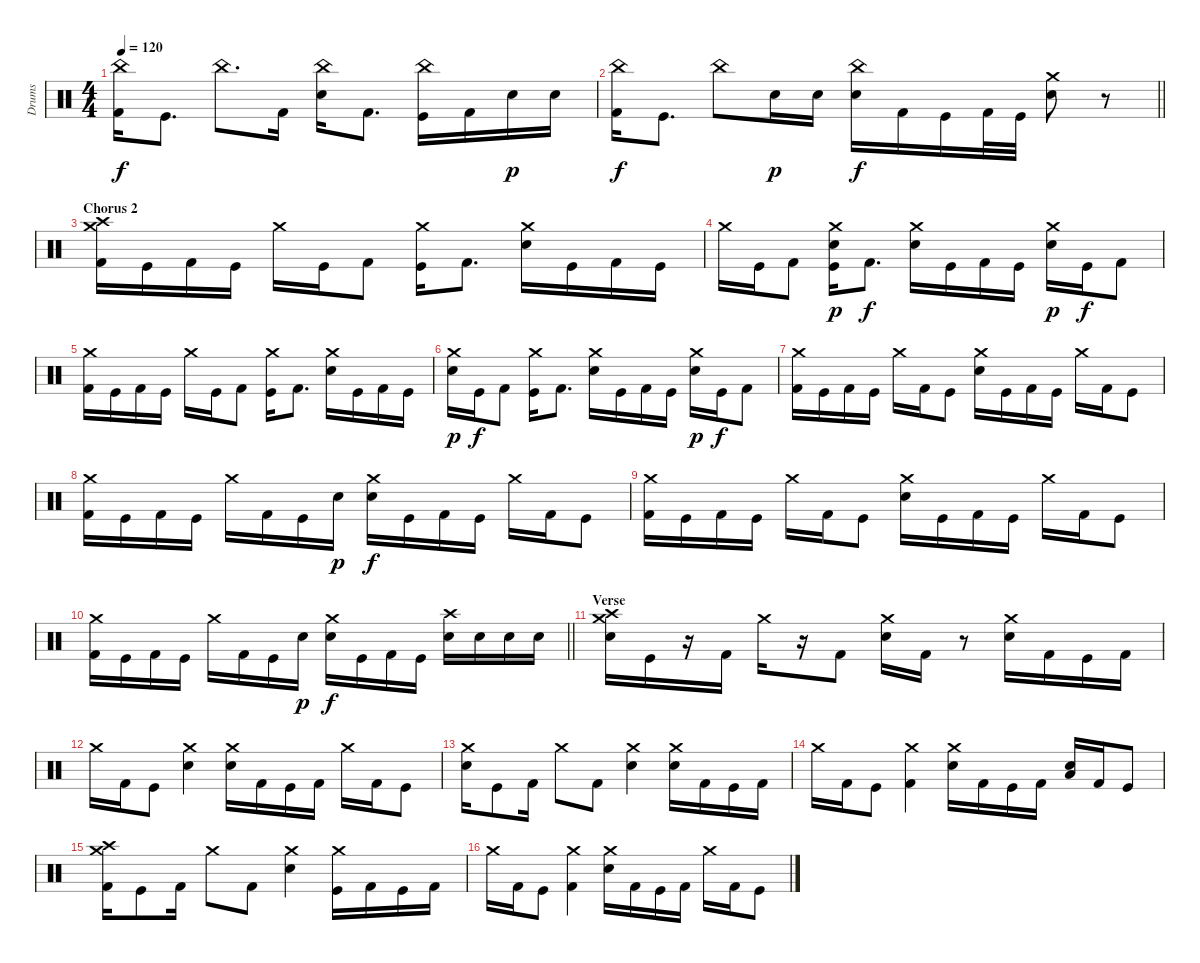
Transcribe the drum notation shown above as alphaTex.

\track ("Drums" "Drums") {instrument percussion}
\staff {score}
\articulation defaults
\ts (4 4)
\tempo 120
\clef neutral
\ks c
("China (hit)" "Kick (hit) 2").16{dy f} "Kick (hit)".8{d} "China (hit)".8{d} "Kick (hit) 2".16 ("China (hit)" "Electric Snare (hit)").16 "Kick (hit) 2".8{d} ("China (hit)" "Kick (hit)").16 "Kick (hit) 2".16 "Electric Snare (hit)".16{dy p} "Electric Snare (hit)".16 |
\barLineRight lightlight
("China (hit)" "Kick (hit) 2").16{dy f} "Kick (hit)".8{d} "China (hit)".8 "Electric Snare (hit)".16{dy p} "Electric Snare (hit)".16 ("China (hit)" "Electric Snare (hit)").16{dy f} "Kick (hit) 2".16 "Kick (hit)".16 "Kick (hit) 2".32 "Kick (hit)".32 ("Crash medium (hit)" "Electric Snare (hit)").8 r.8 |
\section ("" "Chorus 2")
("Crash high (hit)" "Crash medium (hit)" "Kick (hit) 2").16 "Kick (hit)".16 "Kick (hit) 2".16 "Kick (hit)".16 "Crash medium (hit)".16 "Kick (hit)".16 "Kick (hit) 2".8 ("Crash medium (hit)" "Kick (hit)").16 "Kick (hit) 2".8{d} ("Crash medium (hit)" "Electric Snare (hit)").16 "Kick (hit)".16 "Kick (hit) 2".16 "Kick (hit)".16 |
"Crash medium (hit)".16 "Kick (hit)".16 "Kick (hit) 2".8 ("Crash medium (hit)" "Electric Snare (hit)" "Kick (hit)").16{dy p} "Kick (hit) 2".8{d dy f} ("Crash medium (hit)" "Electric Snare (hit)").16 "Kick (hit)".16 "Kick (hit) 2".16 "Kick (hit)".16 ("Crash medium (hit)" "Electric Snare (hit)").16{dy p} "Kick (hit)".16{dy f} "Kick (hit) 2".8 |
("Crash medium (hit)" "Kick (hit) 2").16 "Kick (hit)".16 "Kick (hit) 2".16 "Kick (hit)".16 "Crash medium (hit)".16 "Kick (hit)".16 "Kick (hit) 2".8 ("Crash medium (hit)" "Kick (hit)").16 "Kick (hit) 2".8{d} ("Crash medium (hit)" "Electric Snare (hit)").16 "Kick (hit)".16 "Kick (hit) 2".16 "Kick (hit)".16 |
("Crash medium (hit)" "Electric Snare (hit)").16{dy p} "Kick (hit)".16{dy f} "Kick (hit) 2".8 ("Crash medium (hit)" "Kick (hit)").16 "Kick (hit) 2".8{d} ("Crash medium (hit)" "Electric Snare (hit)").16 "Kick (hit)".16 "Kick (hit) 2".16 "Kick (hit)".16 ("Crash medium (hit)" "Electric Snare (hit)").16{dy p} "Kick (hit)".16{dy f} "Kick (hit) 2".8 |
("Crash medium (hit)" "Kick (hit) 2").16 "Kick (hit)".16 "Kick (hit) 2".16 "Kick (hit)".16 "Crash medium (hit)".16 "Kick (hit) 2".16 "Kick (hit)".8 ("Crash medium (hit)" "Electric Snare (hit)").16 "Kick (hit)".16 "Kick (hit) 2".16 "Kick (hit)".16 "Crash medium (hit)".16 "Kick (hit) 2".16 "Kick (hit)".8 |
("Crash medium (hit)" "Kick (hit) 2").16 "Kick (hit)".16 "Kick (hit) 2".16 "Kick (hit)".16 "Crash medium (hit)".16 "Kick (hit) 2".16 "Kick (hit)".16 "Electric Snare (hit)".16{dy p} ("Crash medium (hit)" "Electric Snare (hit)").16{dy f} "Kick (hit)".16 "Kick (hit) 2".16 "Kick (hit)".16 "Crash medium (hit)".16 "Kick (hit) 2".16 "Kick (hit)".8 |
("Crash medium (hit)" "Kick (hit) 2").16 "Kick (hit)".16 "Kick (hit) 2".16 "Kick (hit)".16 "Crash medium (hit)".16 "Kick (hit) 2".16 "Kick (hit)".8 ("Crash medium (hit)" "Electric Snare (hit)").16 "Kick (hit)".16 "Kick (hit) 2".16 "Kick (hit)".16 "Crash medium (hit)".16 "Kick (hit) 2".16 "Kick (hit)".8 |
\barLineRight lightlight
("Crash medium (hit)" "Kick (hit) 2").16 "Kick (hit)".16 "Kick (hit) 2".16 "Kick (hit)".16 "Crash medium (hit)".16 "Kick (hit) 2".16 "Kick (hit)".16 "Electric Snare (hit)".16{dy p} ("Crash medium (hit)" "Electric Snare (hit)").16{dy f} "Kick (hit)".16 "Kick (hit) 2".16 "Kick (hit)".16 ("Crash high (hit)" "Electric Snare (hit)").16 "Electric Snare (hit)".16 "Electric Snare (hit)".16 "Electric Snare (hit)".16 |
\section ("" "Verse")
("Crash medium (hit)" "Crash high (hit)" "Electric Snare (hit)").16 "Kick (hit)".16 r.16 "Kick (hit) 2".16 "Crash medium (hit)".16 r.16 "Kick (hit) 2".8 ("Crash medium (hit)" "Electric Snare (hit)").16 "Kick (hit) 2".16 r.8 ("Crash medium (hit)" "Electric Snare (hit)").16 "Kick (hit) 2".16 "Kick (hit)".16 "Kick (hit) 2".16 |
"Crash medium (hit)".16 "Kick (hit) 2".16 "Kick (hit)".8 ("Crash medium (hit)" "Electric Snare (hit)").4 ("Crash medium (hit)" "Electric Snare (hit)").16 "Kick (hit) 2".16 "Kick (hit)".16 "Kick (hit) 2".16 "Crash medium (hit)".16 "Kick (hit) 2".16 "Kick (hit)".8 |
("Crash medium (hit)" "Electric Snare (hit)").16 "Kick (hit)".8 "Kick (hit) 2".16 "Crash medium (hit)".8 "Kick (hit) 2".8 ("Crash medium (hit)" "Electric Snare (hit)").4 ("Crash medium (hit)" "Electric Snare (hit)").16 "Kick (hit) 2".16 "Kick (hit)".16 "Kick (hit) 2".16 |
"Crash medium (hit)".16 "Kick (hit) 2".16 "Kick (hit)".8 ("Crash medium (hit)" "Kick (hit) 2").4 ("Crash medium (hit)" "Electric Snare (hit)").16 "Kick (hit) 2".16 "Kick (hit)".16 "Kick (hit) 2".16 ("Low Tom (hit)" "Electric Snare (hit)").16 "Kick (hit) 2".16 "Kick (hit)".8 |
("Crash medium (hit)" "Crash high (hit)" "Kick (hit) 2").16 "Kick (hit)".8 "Kick (hit) 2".16 "Crash medium (hit)".8 "Kick (hit) 2".8 ("Crash medium (hit)" "Electric Snare (hit)").4 ("Crash medium (hit)" "Kick (hit)").16 "Kick (hit) 2".16 "Kick (hit)".16 "Kick (hit) 2".16 |
"Crash medium (hit)".16 "Kick (hit) 2".16 "Kick (hit)".8 ("Crash medium (hit)" "Kick (hit) 2").4 ("Crash medium (hit)" "Electric Snare (hit)").16 "Kick (hit) 2".16 "Kick (hit)".16 "Kick (hit) 2".16 "Crash medium (hit)".16 "Kick (hit) 2".16 "Kick (hit)".8
